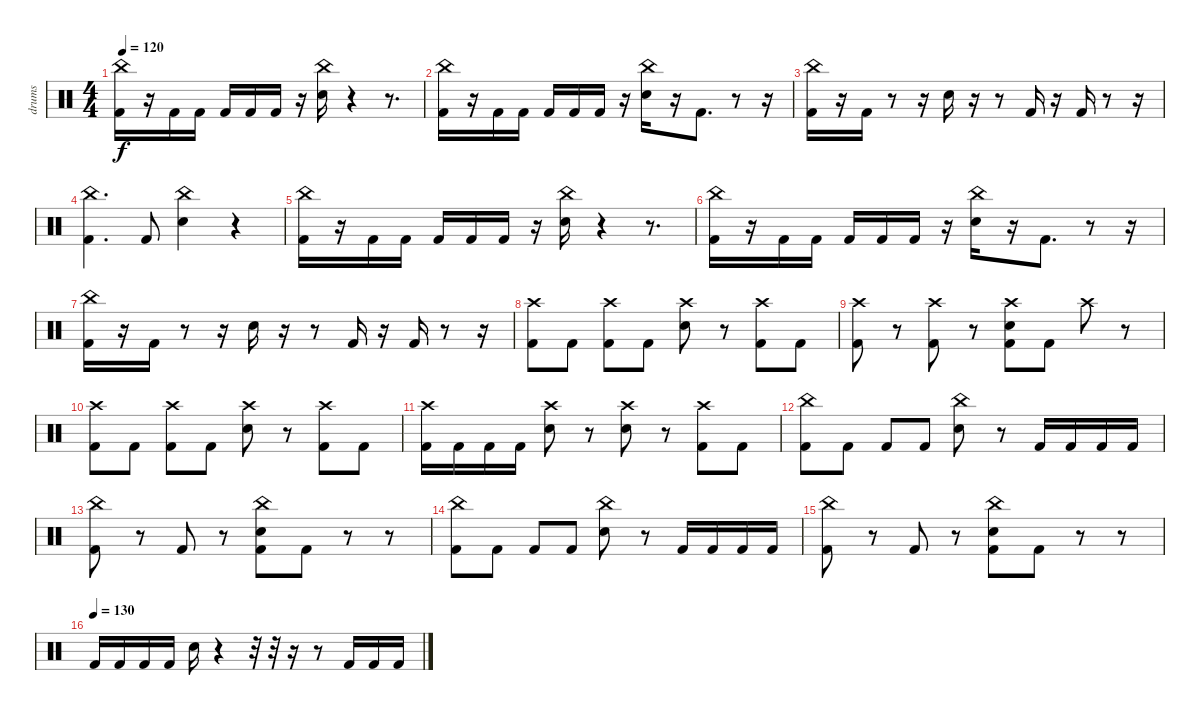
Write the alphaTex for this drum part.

\track ("drums" "drums") {instrument percussion}
\staff {score}
\articulation defaults
\ts (4 4)
\tempo 120
\clef neutral
\ks c
("China (hit)" "Kick (hit) 2").16{dy f} r.16 "Kick (hit) 2".16 "Kick (hit) 2".16 "Kick (hit) 2".16 "Kick (hit) 2".16 "Kick (hit) 2".16 r.16 ("China (hit)" "Electric Snare (hit)").16 r.4 r.8{d} |
("China (hit)" "Kick (hit) 2").16 r.16 "Kick (hit) 2".16 "Kick (hit) 2".16 "Kick (hit) 2".16 "Kick (hit) 2".16 "Kick (hit) 2".16 r.16 ("China (hit)" "Electric Snare (hit)").16 r.16 "Kick (hit) 2".8{d} r.8 r.16 |
("China (hit)" "Kick (hit) 2").16 r.16 "Kick (hit) 2".16 r.8 r.16 "Electric Snare (hit)".16 r.16 r.8 "Kick (hit) 2".16 r.16 "Kick (hit) 2".16 r.8 r.16 |
("China (hit)" "Kick (hit) 2").4{d} "Kick (hit) 2".8 ("China (hit)" "Electric Snare (hit)").4 r.4 |
("China (hit)" "Kick (hit) 2").16 r.16 "Kick (hit) 2".16 "Kick (hit) 2".16 "Kick (hit) 2".16 "Kick (hit) 2".16 "Kick (hit) 2".16 r.16 ("China (hit)" "Electric Snare (hit)").16 r.4 r.8{d} |
("China (hit)" "Kick (hit) 2").16 r.16 "Kick (hit) 2".16 "Kick (hit) 2".16 "Kick (hit) 2".16 "Kick (hit) 2".16 "Kick (hit) 2".16 r.16 ("China (hit)" "Electric Snare (hit)").16 r.16 "Kick (hit) 2".8{d} r.8 r.16 |
("China (hit)" "Kick (hit) 2").16 r.16 "Kick (hit) 2".16 r.8 r.16 "Electric Snare (hit)".16 r.16 r.8 "Kick (hit) 2".16 r.16 "Kick (hit) 2".16 r.8 r.16 |
("Crash high (hit)" "Kick (hit) 2").8 "Kick (hit) 2".8 ("Crash high (hit)" "Kick (hit) 2").8 "Kick (hit) 2".8 ("Crash high (hit)" "Electric Snare (hit)").8 r.8 ("Crash high (hit)" "Kick (hit) 2").8 "Kick (hit) 2".8 |
("Crash high (hit)" "Kick (hit) 2").8 r.8 ("Crash high (hit)" "Kick (hit) 2").8 r.8 ("Crash high (hit)" "Electric Snare (hit)" "Kick (hit) 2").8 "Kick (hit) 2".8 "Crash high (hit)".8 r.8 |
("Crash high (hit)" "Kick (hit) 2").8 "Kick (hit) 2".8 ("Crash high (hit)" "Kick (hit) 2").8 "Kick (hit) 2".8 ("Crash high (hit)" "Electric Snare (hit)").8 r.8 ("Crash high (hit)" "Kick (hit) 2").8 "Kick (hit) 2".8 |
("Crash high (hit)" "Kick (hit) 2").16 "Kick (hit) 2".16 "Kick (hit) 2".16 "Kick (hit) 2".16 ("Crash high (hit)" "Electric Snare (hit)").8 r.8 ("Crash high (hit)" "Electric Snare (hit)").8 r.8 ("Crash high (hit)" "Kick (hit) 2").8 "Kick (hit) 2".8 |
("China (hit)" "Kick (hit) 2").8 "Kick (hit) 2".8 "Kick (hit) 2".8 "Kick (hit) 2".8 ("China (hit)" "Electric Snare (hit)").8 r.8 "Kick (hit) 2".16 "Kick (hit) 2".16 "Kick (hit) 2".16 "Kick (hit) 2".16 |
("China (hit)" "Kick (hit) 2").8 r.8 "Kick (hit) 2".8 r.8 ("China (hit)" "Electric Snare (hit)" "Kick (hit) 2").8 "Kick (hit) 2".8 r.8 r.8 |
("China (hit)" "Kick (hit) 2").8 "Kick (hit) 2".8 "Kick (hit) 2".8 "Kick (hit) 2".8 ("China (hit)" "Electric Snare (hit)").8 r.8 "Kick (hit) 2".16 "Kick (hit) 2".16 "Kick (hit) 2".16 "Kick (hit) 2".16 |
("China (hit)" "Kick (hit) 2").8 r.8 "Kick (hit) 2".8 r.8 ("China (hit)" "Electric Snare (hit)" "Kick (hit) 2").8 "Kick (hit) 2".8 r.8 r.8 |
\tempo (130)
"Kick (hit) 2".16 "Kick (hit) 2".16 "Kick (hit) 2".16 "Kick (hit) 2".16 "Electric Snare (hit)".16 r.4 r.32 r.32 r.16 r.8 "Kick (hit) 2".16 "Kick (hit) 2".16 "Kick (hit) 2".16
